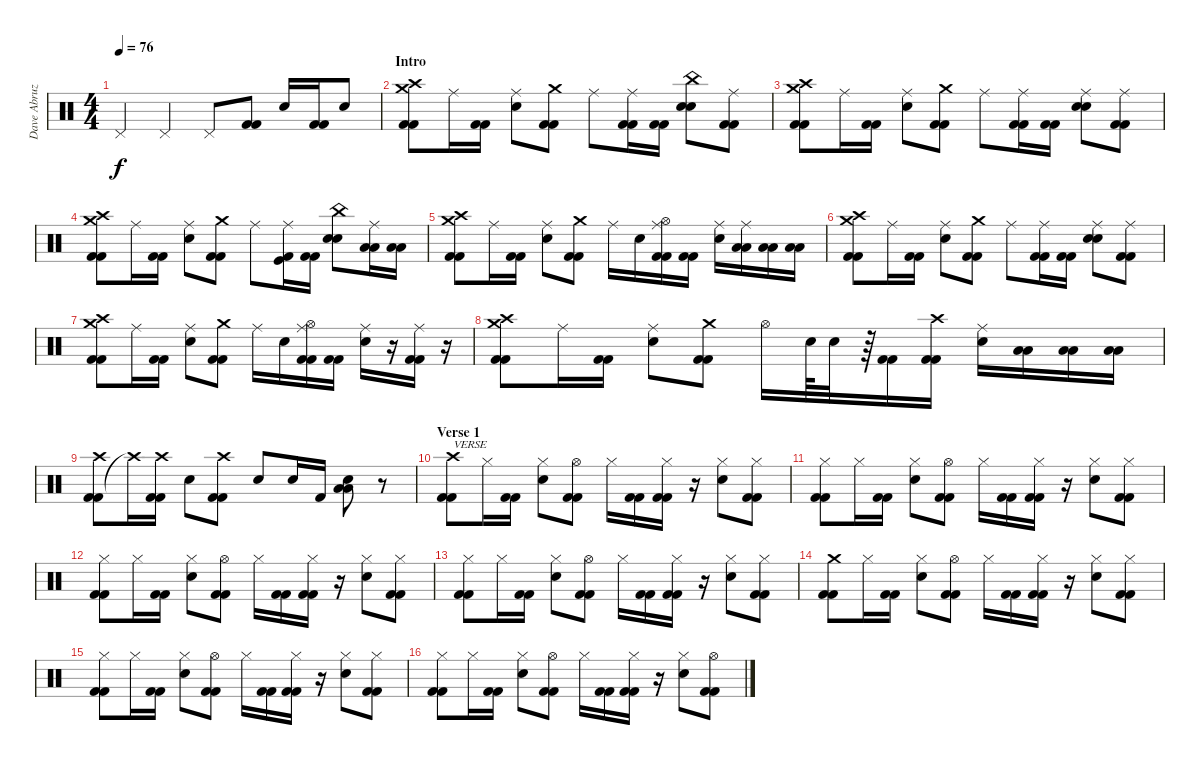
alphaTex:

\track ("Dave Abruzzese" "Dave Abruz") {instrument percussion}
\staff {score}
\articulation defaults
\ts (4 4)
\tempo 76
\clef neutral
\ks c "Pedal Hi-Hat (hit)".4{dy f} "Pedal Hi-Hat (hit)".4 "Pedal Hi-Hat (hit)".8
("Kick (hit) 2" "Kick (hit) 2").8 "Snare (hit) 2".16 ("Kick (hit) 2" "Kick (hit) 2").16 "Snare (hit) 2".8 |
\section ("" "Intro")
("Crash medium (hit)" "Kick (hit) 2" "Kick (hit) 2" "Crash high (hit)").8 "Ride (middle)".16 ("Kick (hit) 2" "Kick (hit) 2").16 ("Snare (hit) 2" "Ride (middle)").8 ("Kick (hit) 2" "Kick (hit) 2" "Crash medium (hit)").8 "Ride (middle)".8 ("Kick (hit) 2" "Kick (hit) 2" "Ride (middle)").16 ("Kick (hit) 2" "Kick (hit) 2").16 ("Snare (hit) 2" "Snare (hit) 2" "China (hit)").8 ("Kick (hit) 2" "Kick (hit) 2" "Ride (middle)").8 |
("Crash medium (hit)" "Kick (hit) 2" "Kick (hit) 2" "Crash high (hit)").8 "Ride (middle)".16 ("Kick (hit) 2" "Kick (hit) 2").16 ("Snare (hit) 2" "Ride (middle)").8 ("Kick (hit) 2" "Kick (hit) 2" "Crash medium (hit)").8 "Ride (middle)".8 ("Kick (hit) 2" "Kick (hit) 2" "Ride (middle)").16 ("Kick (hit) 2" "Kick (hit) 2").16 ("Snare (hit) 2" "Snare (hit) 2" "Ride (middle)").8 ("Kick (hit) 2" "Kick (hit) 2" "Ride (middle)").8 |
("Crash medium (hit)" "Kick (hit) 2" "Kick (hit) 2" "Crash high (hit)").8 "Ride (middle)".16 ("Kick (hit) 2" "Kick (hit) 2").16 ("Snare (hit) 2" "Ride (middle)").8 ("Kick (hit) 2" "Kick (hit) 2" "Crash medium (hit)").8 "Ride (middle)".8 ("Kick (hit)" "Kick (hit) 2" "Ride (middle)").16 ("Kick (hit) 2" "Kick (hit) 2").16 ("Snare (hit) 2" "Snare (hit) 2" "China (hit)").8 ("Low Tom (hit)" "Low Tom (hit)" "Ride (middle)").16 ("Low Tom (hit)" "Low Tom (hit)").16 |
("Crash medium (hit)" "Kick (hit) 2" "Kick (hit) 2" "Crash high (hit)").8 "Ride (middle)".16 ("Kick (hit) 2" "Kick (hit) 2").16 ("Snare (hit) 2" "Ride (middle)").8 ("Kick (hit) 2" "Kick (hit) 2" "Crash medium (hit)").8 "Ride (middle)".16 "Snare (hit) 2".16 ("Hi-Hat (open)" "Kick (hit) 2" "Kick (hit) 2" "Ride (middle)").16 ("Kick (hit) 2" "Kick (hit) 2").16 ("Snare (hit) 2" "Ride (middle)").16 ("Low Tom (hit)" "Low Tom (hit)" "Ride (middle)").16 ("Low Tom (hit)" "Low Tom (hit)").16 ("Low Tom (hit)" "Low Tom (hit)").16 |
("Crash medium (hit)" "Kick (hit) 2" "Kick (hit) 2" "Crash high (hit)").8 "Ride (middle)".16 ("Kick (hit) 2" "Kick (hit) 2").16 ("Snare (hit) 2" "Ride (middle)").8 ("Kick (hit) 2" "Kick (hit) 2" "Crash medium (hit)").8 "Ride (middle)".8 ("Kick (hit) 2" "Kick (hit) 2" "Ride (middle)").16 ("Kick (hit) 2" "Kick (hit) 2").16 ("Snare (hit) 2" "Snare (hit) 2" "Ride (middle)").8 ("Kick (hit) 2" "Kick (hit) 2" "Ride (middle)").8 |
("Crash medium (hit)" "Kick (hit) 2" "Kick (hit) 2" "Crash high (hit)").8 "Ride (middle)".16 ("Kick (hit) 2" "Kick (hit) 2").16 ("Snare (hit) 2" "Ride (middle)").8 ("Kick (hit) 2" "Kick (hit) 2" "Crash medium (hit)").8 "Ride (middle)".16 "Snare (hit) 2".16 ("Hi-Hat (open)" "Kick (hit) 2" "Kick (hit) 2" "Ride (middle)").16 ("Kick (hit) 2" "Kick (hit) 2").16 ("Snare (hit) 2" "Ride (middle)").16 r.16 ("Kick (hit) 2" "Kick (hit) 2" "Ride (middle)").16 r.16 |
("Crash medium (hit)" "Kick (hit) 2" "Kick (hit) 2" "Crash high (hit)").8 "Ride (middle)".16 ("Kick (hit) 2" "Kick (hit) 2").16 ("Snare (hit) 2" "Ride (middle)").8 ("Kick (hit) 2" "Kick (hit) 2" "Crash medium (hit)").8 "Hi-Hat (open)".16 "Snare (hit) 2".64 "Snare (hit) 2".32 r.64 ("Kick (hit) 2" "Kick (hit) 2").16 ("Kick (hit) 2" "Kick (hit) 2" "Crash high (hit)").16 ("Snare (hit) 2" "Ride (middle)").16 ("Low Tom (hit)" "Low Tom (hit)").16 ("Low Tom (hit)" "Low Tom (hit)").16 ("Low Tom (hit)" "Low Tom (hit)").16 |
("Kick (hit) 2" "Kick (hit) 2" "Crash high (hit)").8 "Crash high (hit)"{t}.16 ("Kick (hit) 2" "Kick (hit) 2" "Crash high (hit)").16 "Snare (hit)".8 ("Kick (hit) 2" "Kick (hit) 2" "Crash high (hit)").8 "Snare (hit)".8 "Snare (hit)".16 "Kick (hit) 2".16 ("Low Tom (hit)" "Low Tom (hit)" "Snare (hit) 2").8 r.8 |
\section ("" "Verse 1")
("Kick (hit) 2" "Kick (hit) 2" "Crash high (hit)").8{txt "VERSE"} "Hi-Hat (closed)".16 ("Kick (hit) 2" "Kick (hit) 2").16 ("Snare (hit) 2" "Hi-Hat (closed)").8 ("Kick (hit) 2" "Kick (hit) 2" "Hi-Hat (open)").8 "Hi-Hat (closed)".16 ("Kick (hit) 2" "Kick (hit) 2").16 ("Kick (hit) 2" "Kick (hit) 2" "Hi-Hat (closed)").16 r.16 ("Snare (hit) 2" "Hi-Hat (closed)").8 ("Kick (hit) 2" "Kick (hit) 2" "Hi-Hat (closed)").8 |
("Kick (hit) 2" "Kick (hit) 2" "Hi-Hat (closed)").8 "Hi-Hat (closed)".16 ("Kick (hit) 2" "Kick (hit) 2").16 ("Snare (hit) 2" "Hi-Hat (closed)").8 ("Kick (hit) 2" "Kick (hit) 2" "Hi-Hat (open)").8 "Hi-Hat (closed)".16 ("Kick (hit) 2" "Kick (hit) 2").16 ("Kick (hit) 2" "Kick (hit) 2" "Hi-Hat (closed)").16 r.16 ("Snare (hit) 2" "Hi-Hat (closed)").8 ("Kick (hit) 2" "Kick (hit) 2" "Hi-Hat (closed)").8 |
("Kick (hit) 2" "Kick (hit) 2" "Hi-Hat (closed)").8 "Hi-Hat (closed)".16 ("Kick (hit) 2" "Kick (hit) 2").16 ("Snare (hit) 2" "Hi-Hat (closed)").8 ("Kick (hit) 2" "Kick (hit) 2" "Hi-Hat (open)").8 "Hi-Hat (closed)".16 ("Kick (hit) 2" "Kick (hit) 2").16 ("Kick (hit) 2" "Kick (hit) 2" "Hi-Hat (closed)").16 r.16 ("Snare (hit) 2" "Hi-Hat (closed)").8 ("Kick (hit) 2" "Kick (hit) 2" "Hi-Hat (closed)").8 |
("Kick (hit) 2" "Kick (hit) 2" "Hi-Hat (closed)").8 "Hi-Hat (closed)".16 ("Kick (hit) 2" "Kick (hit) 2").16 ("Snare (hit) 2" "Hi-Hat (closed)").8 ("Kick (hit) 2" "Kick (hit) 2" "Hi-Hat (open)").8 "Hi-Hat (closed)".16 ("Kick (hit) 2" "Kick (hit) 2").16 ("Kick (hit) 2" "Kick (hit) 2" "Hi-Hat (closed)").16 r.16 ("Snare (hit) 2" "Hi-Hat (closed)").8 ("Kick (hit) 2" "Kick (hit) 2" "Hi-Hat (closed)").8 |
("Kick (hit) 2" "Kick (hit) 2" "Crash medium (hit)").8 "Hi-Hat (closed)".16 ("Kick (hit) 2" "Kick (hit) 2").16 ("Snare (hit) 2" "Hi-Hat (closed)").8 ("Kick (hit) 2" "Kick (hit) 2" "Hi-Hat (open)").8 "Hi-Hat (closed)".16 ("Kick (hit) 2" "Kick (hit) 2").16 ("Kick (hit) 2" "Kick (hit) 2" "Hi-Hat (closed)").16 r.16 ("Snare (hit) 2" "Hi-Hat (closed)").8 ("Kick (hit) 2" "Kick (hit) 2" "Hi-Hat (closed)").8 |
("Kick (hit) 2" "Kick (hit) 2" "Hi-Hat (closed)").8 "Hi-Hat (closed)".16 ("Kick (hit) 2" "Kick (hit) 2").16 ("Snare (hit) 2" "Hi-Hat (closed)").8 ("Kick (hit) 2" "Kick (hit) 2" "Hi-Hat (open)").8 "Hi-Hat (closed)".16 ("Kick (hit) 2" "Kick (hit) 2").16 ("Kick (hit) 2" "Kick (hit) 2" "Hi-Hat (closed)").16 r.16 ("Snare (hit) 2" "Hi-Hat (closed)").8 ("Kick (hit) 2" "Kick (hit) 2" "Hi-Hat (closed)").8 |
("Kick (hit) 2" "Kick (hit) 2" "Hi-Hat (closed)").8 "Hi-Hat (closed)".16 ("Kick (hit) 2" "Kick (hit) 2").16 ("Snare (hit) 2" "Hi-Hat (closed)").8 ("Kick (hit) 2" "Kick (hit) 2" "Hi-Hat (open)").8 "Hi-Hat (closed)".16 ("Kick (hit) 2" "Kick (hit) 2").16 ("Kick (hit) 2" "Kick (hit) 2" "Hi-Hat (closed)").16 r.16 ("Snare (hit) 2" "Hi-Hat (closed)").8 ("Kick (hit) 2" "Kick (hit) 2" "Hi-Hat (open)").8
